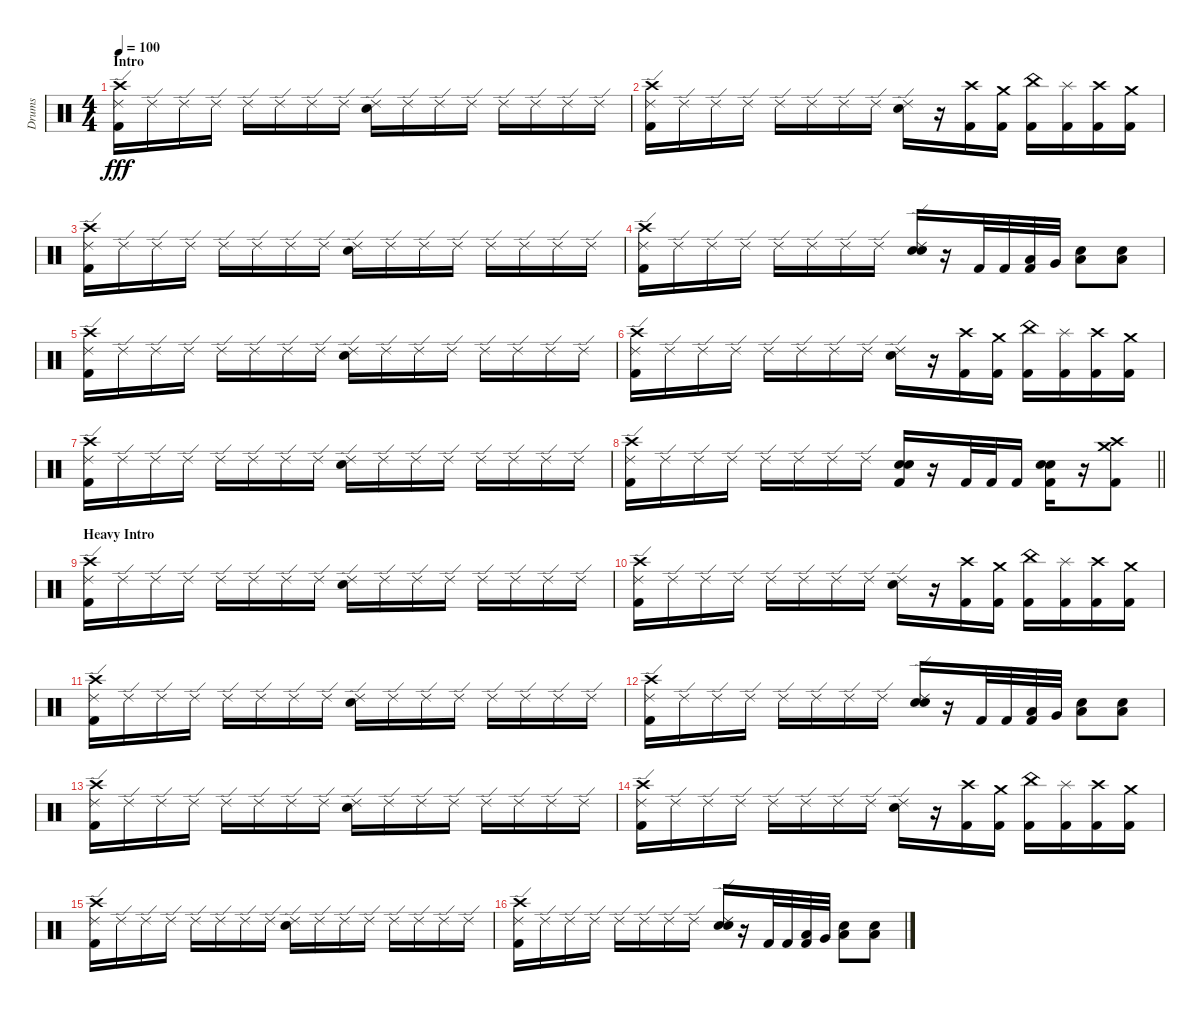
\track ("Drums" "Drums") {instrument percussion}
\staff {score}
\articulation defaults
\ts (4 4)
\section ("" "Intro")
\tempo 100
\clef neutral
\ks c
("Crash high (hit)" "Ride (edge) 2" "Kick (hit) 2").16{dy fff} "Ride (edge) 2".16 "Ride (edge) 2".16 "Ride (edge) 2".16 "Ride (edge) 2".16 "Ride (edge) 2".16 "Ride (edge) 2".16 "Ride (edge) 2".16 ("Ride (edge) 2" "Electric Snare (hit)").16 "Ride (edge) 2".16 "Ride (edge) 2".16 "Ride (edge) 2".16 "Ride (edge) 2".16 "Ride (edge) 2".16 "Ride (edge) 2".16 "Ride (edge) 2".16 |
("Crash high (hit)" "Ride (edge) 2" "Kick (hit) 2").16 "Ride (edge) 2".16 "Ride (edge) 2".16 "Ride (edge) 2".16 "Ride (edge) 2".16 "Ride (edge) 2".16 "Ride (edge) 2".16 "Ride (edge) 2".16 ("Ride (edge) 2" "Electric Snare (hit)").16 r.16 ("Crash high (hit)" "Kick (hit) 2").16 ("Crash medium (hit)" "Kick (hit) 2").16 ("China (hit)" "Kick (hit) 2").16 ("Splash (hit)" "Kick (hit) 2").16 ("Crash high (hit)" "Kick (hit) 2").16 ("Crash medium (hit)" "Kick (hit) 2").16 |
("Crash high (hit)" "Ride (edge) 2" "Kick (hit) 2").16 "Ride (edge) 2".16 "Ride (edge) 2".16 "Ride (edge) 2".16 "Ride (edge) 2".16 "Ride (edge) 2".16 "Ride (edge) 2".16 "Ride (edge) 2".16 ("Ride (edge) 2" "Electric Snare (hit)").16 "Ride (edge) 2".16 "Ride (edge) 2".16 "Ride (edge) 2".16 "Ride (edge) 2".16 "Ride (edge) 2".16 "Ride (edge) 2".16 "Ride (edge) 2".16 |
("Crash high (hit)" "Ride (edge) 2" "Kick (hit) 2").16 "Ride (edge) 2".16 "Ride (edge) 2".16 "Ride (edge) 2".16 "Ride (edge) 2".16 "Ride (edge) 2".16 "Ride (edge) 2".16 "Ride (edge) 2".16 ("Ride (edge) 2" "Electric Snare (hit)" "Electric Snare (hit)").16 r.16 "Kick (hit) 2".32 "Kick (hit) 2".32 ("Low Floor Tom (hit)" "Kick (hit) 2").32 "Very Low Tom (hit)".32 ("Low Floor Tom (hit)" "Electric Snare (hit)").8 ("Low Floor Tom (hit)" "Electric Snare (hit)").8 |
("Crash high (hit)" "Ride (edge) 2" "Kick (hit) 2").16 "Ride (edge) 2".16 "Ride (edge) 2".16 "Ride (edge) 2".16 "Ride (edge) 2".16 "Ride (edge) 2".16 "Ride (edge) 2".16 "Ride (edge) 2".16 ("Ride (edge) 2" "Electric Snare (hit)").16 "Ride (edge) 2".16 "Ride (edge) 2".16 "Ride (edge) 2".16 "Ride (edge) 2".16 "Ride (edge) 2".16 "Ride (edge) 2".16 "Ride (edge) 2".16 |
("Crash high (hit)" "Ride (edge) 2" "Kick (hit) 2").16 "Ride (edge) 2".16 "Ride (edge) 2".16 "Ride (edge) 2".16 "Ride (edge) 2".16 "Ride (edge) 2".16 "Ride (edge) 2".16 "Ride (edge) 2".16 ("Ride (edge) 2" "Electric Snare (hit)").16 r.16 ("Crash high (hit)" "Kick (hit) 2").16 ("Crash medium (hit)" "Kick (hit) 2").16 ("China (hit)" "Kick (hit) 2").16 ("Splash (hit)" "Kick (hit) 2").16 ("Crash high (hit)" "Kick (hit) 2").16 ("Crash medium (hit)" "Kick (hit) 2").16 |
("Crash high (hit)" "Ride (edge) 2" "Kick (hit) 2").16 "Ride (edge) 2".16 "Ride (edge) 2".16 "Ride (edge) 2".16 "Ride (edge) 2".16 "Ride (edge) 2".16 "Ride (edge) 2".16 "Ride (edge) 2".16 ("Ride (edge) 2" "Electric Snare (hit)").16 "Ride (edge) 2".16 "Ride (edge) 2".16 "Ride (edge) 2".16 "Ride (edge) 2".16 "Ride (edge) 2".16 "Ride (edge) 2".16 "Ride (edge) 2".16 |
\barLineRight lightlight
("Crash high (hit)" "Ride (edge) 2" "Kick (hit) 2").16 "Ride (edge) 2".16 "Ride (edge) 2".16 "Ride (edge) 2".16 "Ride (edge) 2".16 "Ride (edge) 2".16 "Ride (edge) 2".16 "Ride (edge) 2".16 ("Electric Snare (hit)" "Electric Snare (hit)" "Kick (hit) 2").16 r.16 "Kick (hit) 2".32 "Kick (hit) 2".32 "Kick (hit) 2".16 ("Electric Snare (hit)" "Electric Snare (hit)" "Kick (hit) 2").16 r.16 ("Crash high (hit)" "Crash medium (hit)" "Kick (hit) 2").8 |
\section ("" "Heavy Intro")
("Crash high (hit)" "Ride (edge) 2" "Kick (hit) 2").16 "Ride (edge) 2".16 "Ride (edge) 2".16 "Ride (edge) 2".16 "Ride (edge) 2".16 "Ride (edge) 2".16 "Ride (edge) 2".16 "Ride (edge) 2".16 ("Ride (edge) 2" "Electric Snare (hit)").16 "Ride (edge) 2".16 "Ride (edge) 2".16 "Ride (edge) 2".16 "Ride (edge) 2".16 "Ride (edge) 2".16 "Ride (edge) 2".16 "Ride (edge) 2".16 |
("Crash high (hit)" "Ride (edge) 2" "Kick (hit) 2").16 "Ride (edge) 2".16 "Ride (edge) 2".16 "Ride (edge) 2".16 "Ride (edge) 2".16 "Ride (edge) 2".16 "Ride (edge) 2".16 "Ride (edge) 2".16 ("Ride (edge) 2" "Electric Snare (hit)").16 r.16 ("Crash high (hit)" "Kick (hit) 2").16 ("Crash medium (hit)" "Kick (hit) 2").16 ("China (hit)" "Kick (hit) 2").16 ("Splash (hit)" "Kick (hit) 2").16 ("Crash high (hit)" "Kick (hit) 2").16 ("Crash medium (hit)" "Kick (hit) 2").16 |
("Crash high (hit)" "Ride (edge) 2" "Kick (hit) 2").16 "Ride (edge) 2".16 "Ride (edge) 2".16 "Ride (edge) 2".16 "Ride (edge) 2".16 "Ride (edge) 2".16 "Ride (edge) 2".16 "Ride (edge) 2".16 ("Ride (edge) 2" "Electric Snare (hit)").16 "Ride (edge) 2".16 "Ride (edge) 2".16 "Ride (edge) 2".16 "Ride (edge) 2".16 "Ride (edge) 2".16 "Ride (edge) 2".16 "Ride (edge) 2".16 |
("Crash high (hit)" "Ride (edge) 2" "Kick (hit) 2").16 "Ride (edge) 2".16 "Ride (edge) 2".16 "Ride (edge) 2".16 "Ride (edge) 2".16 "Ride (edge) 2".16 "Ride (edge) 2".16 "Ride (edge) 2".16 ("Ride (edge) 2" "Electric Snare (hit)" "Electric Snare (hit)").16 r.16 "Kick (hit) 2".32 "Kick (hit) 2".32 ("Low Floor Tom (hit)" "Kick (hit) 2").32 "Very Low Tom (hit)".32 ("Low Floor Tom (hit)" "Electric Snare (hit)").8 ("Low Floor Tom (hit)" "Electric Snare (hit)").8 |
("Crash high (hit)" "Ride (edge) 2" "Kick (hit) 2").16 "Ride (edge) 2".16 "Ride (edge) 2".16 "Ride (edge) 2".16 "Ride (edge) 2".16 "Ride (edge) 2".16 "Ride (edge) 2".16 "Ride (edge) 2".16 ("Ride (edge) 2" "Electric Snare (hit)").16 "Ride (edge) 2".16 "Ride (edge) 2".16 "Ride (edge) 2".16 "Ride (edge) 2".16 "Ride (edge) 2".16 "Ride (edge) 2".16 "Ride (edge) 2".16 |
("Crash high (hit)" "Ride (edge) 2" "Kick (hit) 2").16 "Ride (edge) 2".16 "Ride (edge) 2".16 "Ride (edge) 2".16 "Ride (edge) 2".16 "Ride (edge) 2".16 "Ride (edge) 2".16 "Ride (edge) 2".16 ("Ride (edge) 2" "Electric Snare (hit)").16 r.16 ("Crash high (hit)" "Kick (hit) 2").16 ("Crash medium (hit)" "Kick (hit) 2").16 ("China (hit)" "Kick (hit) 2").16 ("Splash (hit)" "Kick (hit) 2").16 ("Crash high (hit)" "Kick (hit) 2").16 ("Crash medium (hit)" "Kick (hit) 2").16 |
("Crash high (hit)" "Ride (edge) 2" "Kick (hit) 2").16 "Ride (edge) 2".16 "Ride (edge) 2".16 "Ride (edge) 2".16 "Ride (edge) 2".16 "Ride (edge) 2".16 "Ride (edge) 2".16 "Ride (edge) 2".16 ("Ride (edge) 2" "Electric Snare (hit)").16 "Ride (edge) 2".16 "Ride (edge) 2".16 "Ride (edge) 2".16 "Ride (edge) 2".16 "Ride (edge) 2".16 "Ride (edge) 2".16 "Ride (edge) 2".16 |
("Crash high (hit)" "Ride (edge) 2" "Kick (hit) 2").16 "Ride (edge) 2".16 "Ride (edge) 2".16 "Ride (edge) 2".16 "Ride (edge) 2".16 "Ride (edge) 2".16 "Ride (edge) 2".16 "Ride (edge) 2".16 ("Ride (edge) 2" "Electric Snare (hit)" "Electric Snare (hit)").16 r.16 "Kick (hit) 2".32 "Kick (hit) 2".32 ("Low Floor Tom (hit)" "Kick (hit) 2").32 "Very Low Tom (hit)".32 ("Low Floor Tom (hit)" "Electric Snare (hit)").8 ("Low Floor Tom (hit)" "Electric Snare (hit)").8
